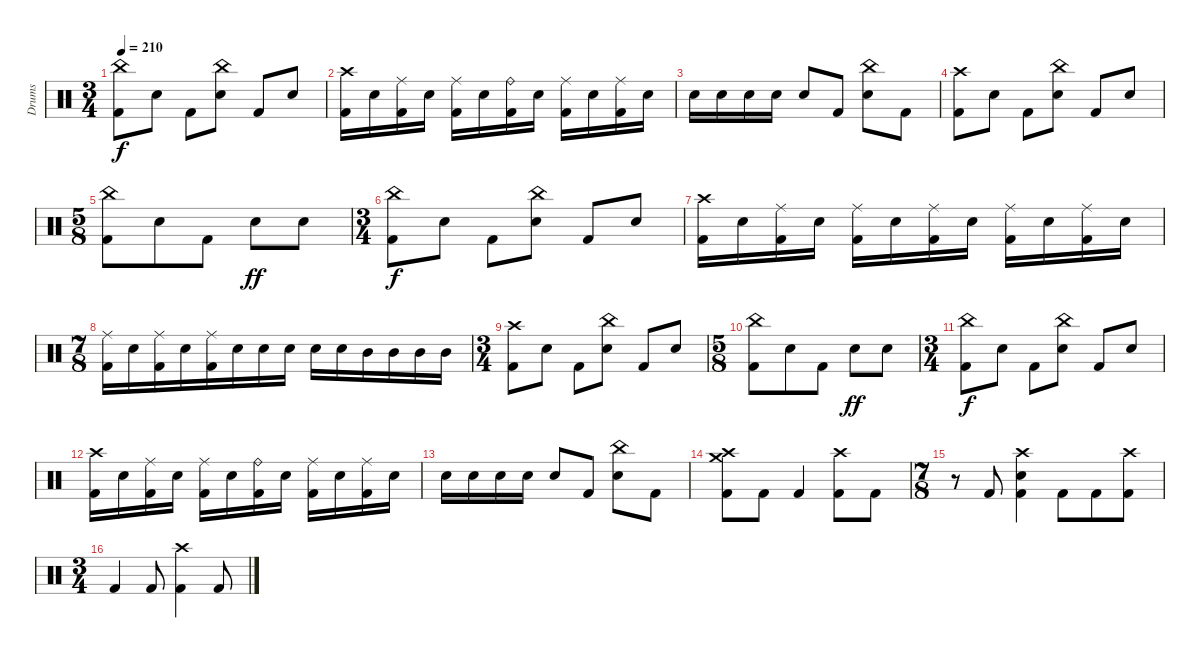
\track ("Drums" "Drums") {instrument percussion}
\staff {score}
\articulation defaults
\ts (3 4)
\tempo 210
\clef neutral
\ks c
("China (hit)" "Kick (hit) 2").8{dy f} "Electric Snare (hit)".8 "Kick (hit) 2".8 ("China (hit)" "Electric Snare (hit)").8 "Kick (hit) 2".8 "Electric Snare (hit)".8 |
("Crash high (hit)" "Kick (hit) 2").16 "Electric Snare (hit)".16 ("Ride (middle)" "Kick (hit) 2").16 "Electric Snare (hit)".16 ("Ride (middle)" "Kick (hit) 2").16 "Electric Snare (hit)".16 ("Ride (bell)" "Kick (hit) 2").16 "Electric Snare (hit)".16 ("Ride (middle)" "Kick (hit) 2").16 "Electric Snare (hit)".16 ("Ride (middle)" "Kick (hit) 2").16 "Electric Snare (hit)".16 |
"Electric Snare (hit)".16 "Electric Snare (hit)".16 "Electric Snare (hit)".16 "Electric Snare (hit)".16 "Electric Snare (hit)".8 "Kick (hit) 2".8 ("China (hit)" "Electric Snare (hit)").8 "Kick (hit) 2".8 |
("Crash high (hit)" "Kick (hit) 2").8 "Electric Snare (hit)".8 "Kick (hit) 2".8 ("China (hit)" "Electric Snare (hit)").8 "Kick (hit) 2".8 "Electric Snare (hit)".8 |
\ts (5 8)
("China (hit)" "Kick (hit) 2").8 "Electric Snare (hit)".8 "Kick (hit) 2".8 "Electric Snare (hit)".8{dy ff} "Electric Snare (hit)".8 |
\ts (3 4)
("China (hit)" "Kick (hit) 2").8{dy f} "Electric Snare (hit)".8 "Kick (hit) 2".8 ("China (hit)" "Electric Snare (hit)").8 "Kick (hit) 2".8 "Electric Snare (hit)".8 |
("Crash high (hit)" "Kick (hit) 2").16 "Electric Snare (hit)".16 ("Ride (middle)" "Kick (hit) 2").16 "Electric Snare (hit)".16 ("Ride (middle)" "Kick (hit) 2").16 "Electric Snare (hit)".16 ("Ride (middle)" "Kick (hit) 2").16 "Electric Snare (hit)".16 ("Ride (middle)" "Kick (hit) 2").16 "Electric Snare (hit)".16 ("Ride (middle)" "Kick (hit) 2").16 "Electric Snare (hit)".16 |
\ts (7 8)
("Ride (middle)" "Kick (hit) 2").16 "Electric Snare (hit)".16 ("Ride (middle)" "Kick (hit) 2").16 "Electric Snare (hit)".16 ("Ride (middle)" "Kick (hit) 2").16 "Electric Snare (hit)".16 "Electric Snare (hit)".16 "Electric Snare (hit)".16 "Electric Snare (hit)".16 "Electric Snare (hit)".16 "Mid Tom (hit)".16 "Mid Tom (hit)".16 "Mid Tom (hit)".16 "Mid Tom (hit)".16 |
\ts (3 4)
("Crash high (hit)" "Kick (hit) 2").8 "Electric Snare (hit)".8 "Kick (hit) 2".8 ("China (hit)" "Electric Snare (hit)").8 "Kick (hit) 2".8 "Electric Snare (hit)".8 |
\ts (5 8)
("China (hit)" "Kick (hit) 2").8 "Electric Snare (hit)".8 "Kick (hit) 2".8 "Electric Snare (hit)".8{dy ff} "Electric Snare (hit)".8 |
\ts (3 4)
("China (hit)" "Kick (hit) 2").8{dy f} "Electric Snare (hit)".8 "Kick (hit) 2".8 ("China (hit)" "Electric Snare (hit)").8 "Kick (hit) 2".8 "Electric Snare (hit)".8 |
("Crash high (hit)" "Kick (hit) 2").16 "Electric Snare (hit)".16 ("Ride (middle)" "Kick (hit) 2").16 "Electric Snare (hit)".16 ("Ride (middle)" "Kick (hit) 2").16 "Electric Snare (hit)".16 ("Ride (bell)" "Kick (hit) 2").16 "Electric Snare (hit)".16 ("Ride (middle)" "Kick (hit) 2").16 "Electric Snare (hit)".16 ("Ride (middle)" "Kick (hit) 2").16 "Electric Snare (hit)".16 |
"Electric Snare (hit)".16 "Electric Snare (hit)".16 "Electric Snare (hit)".16 "Electric Snare (hit)".16 "Electric Snare (hit)".8 "Kick (hit) 2".8 ("China (hit)" "Electric Snare (hit)").8 "Kick (hit) 2".8 |
("Crash high (hit)" "Crash medium (hit)" "Kick (hit) 2").8 "Kick (hit) 2".8 "Kick (hit) 2".4 ("Crash high (hit)" "Kick (hit) 2").8 "Kick (hit) 2".8 |
\ts (7 8)
r.8 "Kick (hit) 2".8 ("Crash high (hit)" "Electric Snare (hit)" "Kick (hit) 2").4 "Kick (hit) 2".8 "Kick (hit) 2".8 ("Crash high (hit)" "Kick (hit) 2").8 |
\ts (3 4)
"Kick (hit) 2".4 "Kick (hit) 2".8 ("Crash high (hit)" "Kick (hit) 2").4 "Kick (hit) 2".8
